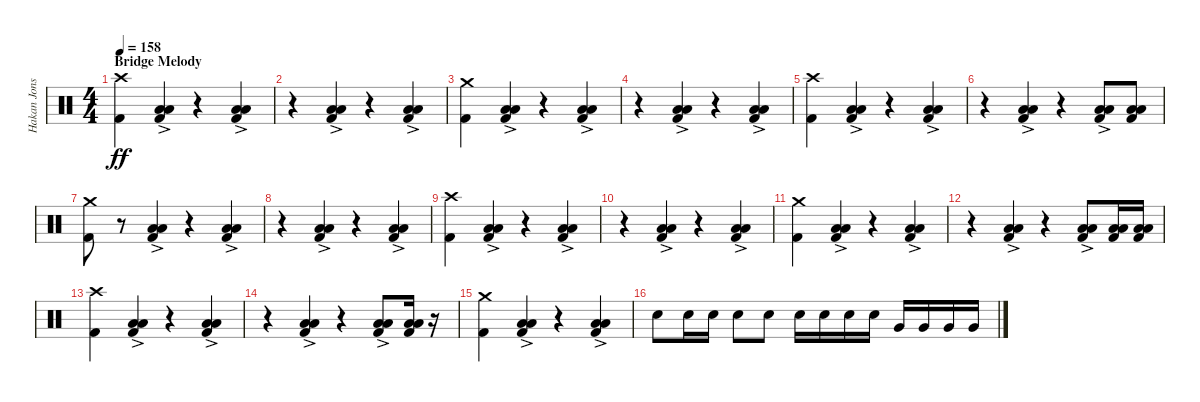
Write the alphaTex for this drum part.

\track ("Hakan Jonsson" "Hakan Jons") {instrument percussion}
\staff {score}
\articulation defaults
\ts (4 4)
\section ("" "Bridge Melody")
\tempo 158
\clef neutral
\ks c
("Crash high (hit)" "Kick (hit) 2").4{dy ff} ("Low Tom (hit)"{ac} "Low Floor Tom (hit)" "Kick (hit) 2").4 r.4 ("Low Tom (hit)"{ac} "Low Floor Tom (hit)" "Kick (hit) 2").4 |
r.4 ("Low Tom (hit)"{ac} "Low Floor Tom (hit)" "Kick (hit) 2").4 r.4 ("Low Tom (hit)"{ac} "Low Floor Tom (hit)" "Kick (hit) 2").4 |
("Crash medium (hit)" "Kick (hit) 2").4 ("Low Tom (hit)"{ac} "Low Floor Tom (hit)" "Kick (hit) 2").4 r.4 ("Low Tom (hit)"{ac} "Low Floor Tom (hit)" "Kick (hit) 2").4 |
r.4 ("Low Tom (hit)"{ac} "Low Floor Tom (hit)" "Kick (hit) 2").4 r.4 ("Low Tom (hit)"{ac} "Low Floor Tom (hit)" "Kick (hit) 2").4 |
("Crash high (hit)" "Kick (hit) 2").4 ("Low Tom (hit)"{ac} "Low Floor Tom (hit)" "Kick (hit) 2").4 r.4 ("Low Tom (hit)"{ac} "Low Floor Tom (hit)" "Kick (hit) 2").4 |
r.4 ("Low Tom (hit)"{ac} "Low Floor Tom (hit)" "Kick (hit) 2").4 r.4 ("Low Tom (hit)"{ac} "Low Floor Tom (hit)" "Kick (hit) 2").8 ("Low Tom (hit)" "Low Floor Tom (hit)" "Kick (hit) 2").8 |
("Crash medium (hit)" "Kick (hit) 2").8 r.8 ("Low Tom (hit)"{ac} "Low Floor Tom (hit)" "Kick (hit) 2").4 r.4 ("Low Tom (hit)"{ac} "Low Floor Tom (hit)" "Kick (hit) 2").4 |
r.4 ("Low Tom (hit)"{ac} "Low Floor Tom (hit)" "Kick (hit) 2").4 r.4 ("Low Tom (hit)"{ac} "Low Floor Tom (hit)" "Kick (hit) 2").4 |
("Crash high (hit)" "Kick (hit) 2").4 ("Low Tom (hit)"{ac} "Low Floor Tom (hit)" "Kick (hit) 2").4 r.4 ("Low Tom (hit)"{ac} "Low Floor Tom (hit)" "Kick (hit) 2").4 |
r.4 ("Low Tom (hit)"{ac} "Low Floor Tom (hit)" "Kick (hit) 2").4 r.4 ("Low Tom (hit)"{ac} "Low Floor Tom (hit)" "Kick (hit) 2").4 |
("Crash medium (hit)" "Kick (hit) 2").4 ("Low Tom (hit)"{ac} "Low Floor Tom (hit)" "Kick (hit) 2").4 r.4 ("Low Tom (hit)"{ac} "Low Floor Tom (hit)" "Kick (hit) 2").4 |
r.4 ("Low Tom (hit)"{ac} "Low Floor Tom (hit)" "Kick (hit) 2").4 r.4 ("Low Tom (hit)"{ac} "Low Floor Tom (hit)" "Kick (hit) 2").8 ("Low Tom (hit)" "Low Floor Tom (hit)" "Kick (hit) 2").16 ("Low Tom (hit)" "Low Floor Tom (hit)" "Kick (hit) 2").16 |
("Crash high (hit)" "Kick (hit) 2").4 ("Low Tom (hit)"{ac} "Low Floor Tom (hit)" "Kick (hit) 2").4 r.4 ("Low Tom (hit)"{ac} "Low Floor Tom (hit)" "Kick (hit) 2").4 |
r.4 ("Low Tom (hit)"{ac} "Low Floor Tom (hit)" "Kick (hit) 2").4 r.4 ("Low Tom (hit)"{ac} "Low Floor Tom (hit)" "Kick (hit) 2").8 ("Low Tom (hit)" "Low Floor Tom (hit)" "Kick (hit) 2").16 r.16 |
("Crash medium (hit)" "Kick (hit) 2").4 ("Low Tom (hit)"{ac} "Low Floor Tom (hit)" "Kick (hit) 2").4 r.4 ("Low Tom (hit)"{ac} "Low Floor Tom (hit)" "Kick (hit) 2").4 |
"Electric Snare (hit)".8 "Electric Snare (hit)".16 "Electric Snare (hit)".16 "Electric Snare (hit)".8 "Electric Snare (hit)".8 "Electric Snare (hit)".16 "Electric Snare (hit)".16 "Electric Snare (hit)".16 "Electric Snare (hit)".16 "Very Low Tom (hit)".16 "Very Low Tom (hit)".16 "Very Low Tom (hit)".16 "Very Low Tom (hit)".16
